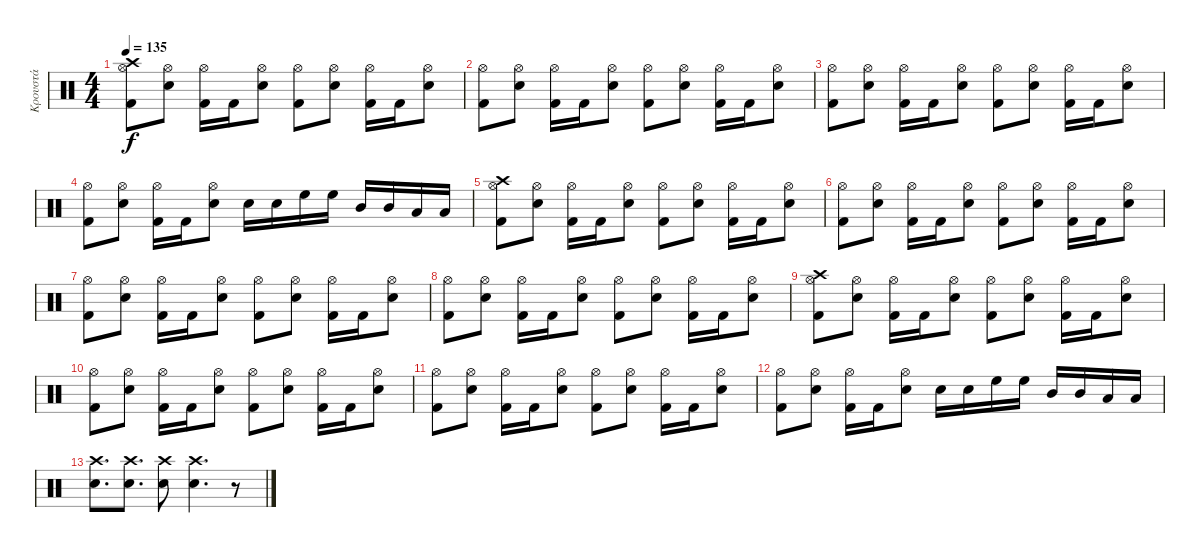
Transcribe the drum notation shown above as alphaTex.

\track ("Κρουστά" "Κρουστά") {instrument percussion}
\staff {score}
\articulation defaults
\ts (4 4)
\tempo 135
\clef neutral
\ks c
("Crash high (hit)" "Hi-Hat (open)" "Kick (hit) 2").8{dy f} ("Snare (hit) 2" "Hi-Hat (open)").8 ("Hi-Hat (open)" "Kick (hit) 2").16 "Kick (hit) 2".16 ("Snare (hit) 2" "Hi-Hat (open)").8 ("Hi-Hat (open)" "Kick (hit) 2").8 ("Snare (hit) 2" "Hi-Hat (open)").8 ("Hi-Hat (open)" "Kick (hit) 2").16 "Kick (hit) 2".16 ("Snare (hit) 2" "Hi-Hat (open)").8 |
("Hi-Hat (open)" "Kick (hit) 2").8 ("Snare (hit) 2" "Hi-Hat (open)").8 ("Hi-Hat (open)" "Kick (hit) 2").16 "Kick (hit) 2".16 ("Snare (hit) 2" "Hi-Hat (open)").8 ("Hi-Hat (open)" "Kick (hit) 2").8 ("Snare (hit) 2" "Hi-Hat (open)").8 ("Hi-Hat (open)" "Kick (hit) 2").16 "Kick (hit) 2".16 ("Snare (hit) 2" "Hi-Hat (open)").8 |
("Hi-Hat (open)" "Kick (hit) 2").8 ("Snare (hit) 2" "Hi-Hat (open)").8 ("Hi-Hat (open)" "Kick (hit) 2").16 "Kick (hit) 2".16 ("Snare (hit) 2" "Hi-Hat (open)").8 ("Hi-Hat (open)" "Kick (hit) 2").8 ("Snare (hit) 2" "Hi-Hat (open)").8 ("Hi-Hat (open)" "Kick (hit) 2").16 "Kick (hit) 2".16 ("Snare (hit) 2" "Hi-Hat (open)").8 |
("Hi-Hat (open)" "Kick (hit) 2").8 ("Snare (hit) 2" "Hi-Hat (open)").8 ("Hi-Hat (open)" "Kick (hit) 2").16 "Kick (hit) 2".16 ("Snare (hit) 2" "Hi-Hat (open)").8 "Snare (hit) 2".16 "Snare (hit) 2".16 "High Floor Tom (hit)".16 "High Floor Tom (hit)".16 "Mid Tom (hit)".16 "Mid Tom (hit)".16 "Low Tom (hit)".16 "Low Tom (hit)".16 |
("Crash high (hit)" "Hi-Hat (open)" "Kick (hit) 2").8 ("Snare (hit) 2" "Hi-Hat (open)").8 ("Hi-Hat (open)" "Kick (hit) 2").16 "Kick (hit) 2".16 ("Snare (hit) 2" "Hi-Hat (open)").8 ("Hi-Hat (open)" "Kick (hit) 2").8 ("Snare (hit) 2" "Hi-Hat (open)").8 ("Hi-Hat (open)" "Kick (hit) 2").16 "Kick (hit) 2".16 ("Snare (hit) 2" "Hi-Hat (open)").8 |
("Hi-Hat (open)" "Kick (hit) 2").8 ("Snare (hit) 2" "Hi-Hat (open)").8 ("Hi-Hat (open)" "Kick (hit) 2").16 "Kick (hit) 2".16 ("Snare (hit) 2" "Hi-Hat (open)").8 ("Hi-Hat (open)" "Kick (hit) 2").8 ("Snare (hit) 2" "Hi-Hat (open)").8 ("Hi-Hat (open)" "Kick (hit) 2").16 "Kick (hit) 2".16 ("Snare (hit) 2" "Hi-Hat (open)").8 |
("Hi-Hat (open)" "Kick (hit) 2").8 ("Snare (hit) 2" "Hi-Hat (open)").8 ("Hi-Hat (open)" "Kick (hit) 2").16 "Kick (hit) 2".16 ("Snare (hit) 2" "Hi-Hat (open)").8 ("Hi-Hat (open)" "Kick (hit) 2").8 ("Snare (hit) 2" "Hi-Hat (open)").8 ("Hi-Hat (open)" "Kick (hit) 2").16 "Kick (hit) 2".16 ("Snare (hit) 2" "Hi-Hat (open)").8 |
("Hi-Hat (open)" "Kick (hit) 2").8 ("Snare (hit) 2" "Hi-Hat (open)").8 ("Hi-Hat (open)" "Kick (hit) 2").16 "Kick (hit) 2".16 ("Snare (hit) 2" "Hi-Hat (open)").8 ("Hi-Hat (open)" "Kick (hit) 2").8 ("Snare (hit) 2" "Hi-Hat (open)").8 ("Hi-Hat (open)" "Kick (hit) 2").16 "Kick (hit) 2".16 ("Snare (hit) 2" "Hi-Hat (open)").8 |
("Crash high (hit)" "Hi-Hat (open)" "Kick (hit) 2").8 ("Snare (hit) 2" "Hi-Hat (open)").8 ("Hi-Hat (open)" "Kick (hit) 2").16 "Kick (hit) 2".16 ("Snare (hit) 2" "Hi-Hat (open)").8 ("Hi-Hat (open)" "Kick (hit) 2").8 ("Snare (hit) 2" "Hi-Hat (open)").8 ("Hi-Hat (open)" "Kick (hit) 2").16 "Kick (hit) 2".16 ("Snare (hit) 2" "Hi-Hat (open)").8 |
("Hi-Hat (open)" "Kick (hit) 2").8 ("Snare (hit) 2" "Hi-Hat (open)").8 ("Hi-Hat (open)" "Kick (hit) 2").16 "Kick (hit) 2".16 ("Snare (hit) 2" "Hi-Hat (open)").8 ("Hi-Hat (open)" "Kick (hit) 2").8 ("Snare (hit) 2" "Hi-Hat (open)").8 ("Hi-Hat (open)" "Kick (hit) 2").16 "Kick (hit) 2".16 ("Snare (hit) 2" "Hi-Hat (open)").8 |
("Hi-Hat (open)" "Kick (hit) 2").8 ("Snare (hit) 2" "Hi-Hat (open)").8 ("Hi-Hat (open)" "Kick (hit) 2").16 "Kick (hit) 2".16 ("Snare (hit) 2" "Hi-Hat (open)").8 ("Hi-Hat (open)" "Kick (hit) 2").8 ("Snare (hit) 2" "Hi-Hat (open)").8 ("Hi-Hat (open)" "Kick (hit) 2").16 "Kick (hit) 2".16 ("Snare (hit) 2" "Hi-Hat (open)").8 |
("Hi-Hat (open)" "Kick (hit) 2").8 ("Snare (hit) 2" "Hi-Hat (open)").8 ("Hi-Hat (open)" "Kick (hit) 2").16 "Kick (hit) 2".16 ("Snare (hit) 2" "Hi-Hat (open)").8 "Snare (hit) 2".16 "Snare (hit) 2".16 "High Floor Tom (hit)".16 "High Floor Tom (hit)".16 "Mid Tom (hit)".16 "Mid Tom (hit)".16 "Low Tom (hit)".16 "Low Tom (hit)".16 |
("Crash high (hit)" "Snare (hit) 2").8{d} ("Crash high (hit)" "Snare (hit) 2").8{d} ("Crash high (hit)" "Snare (hit) 2").8 ("Crash high (hit)" "Snare (hit) 2").4{d} r.8
